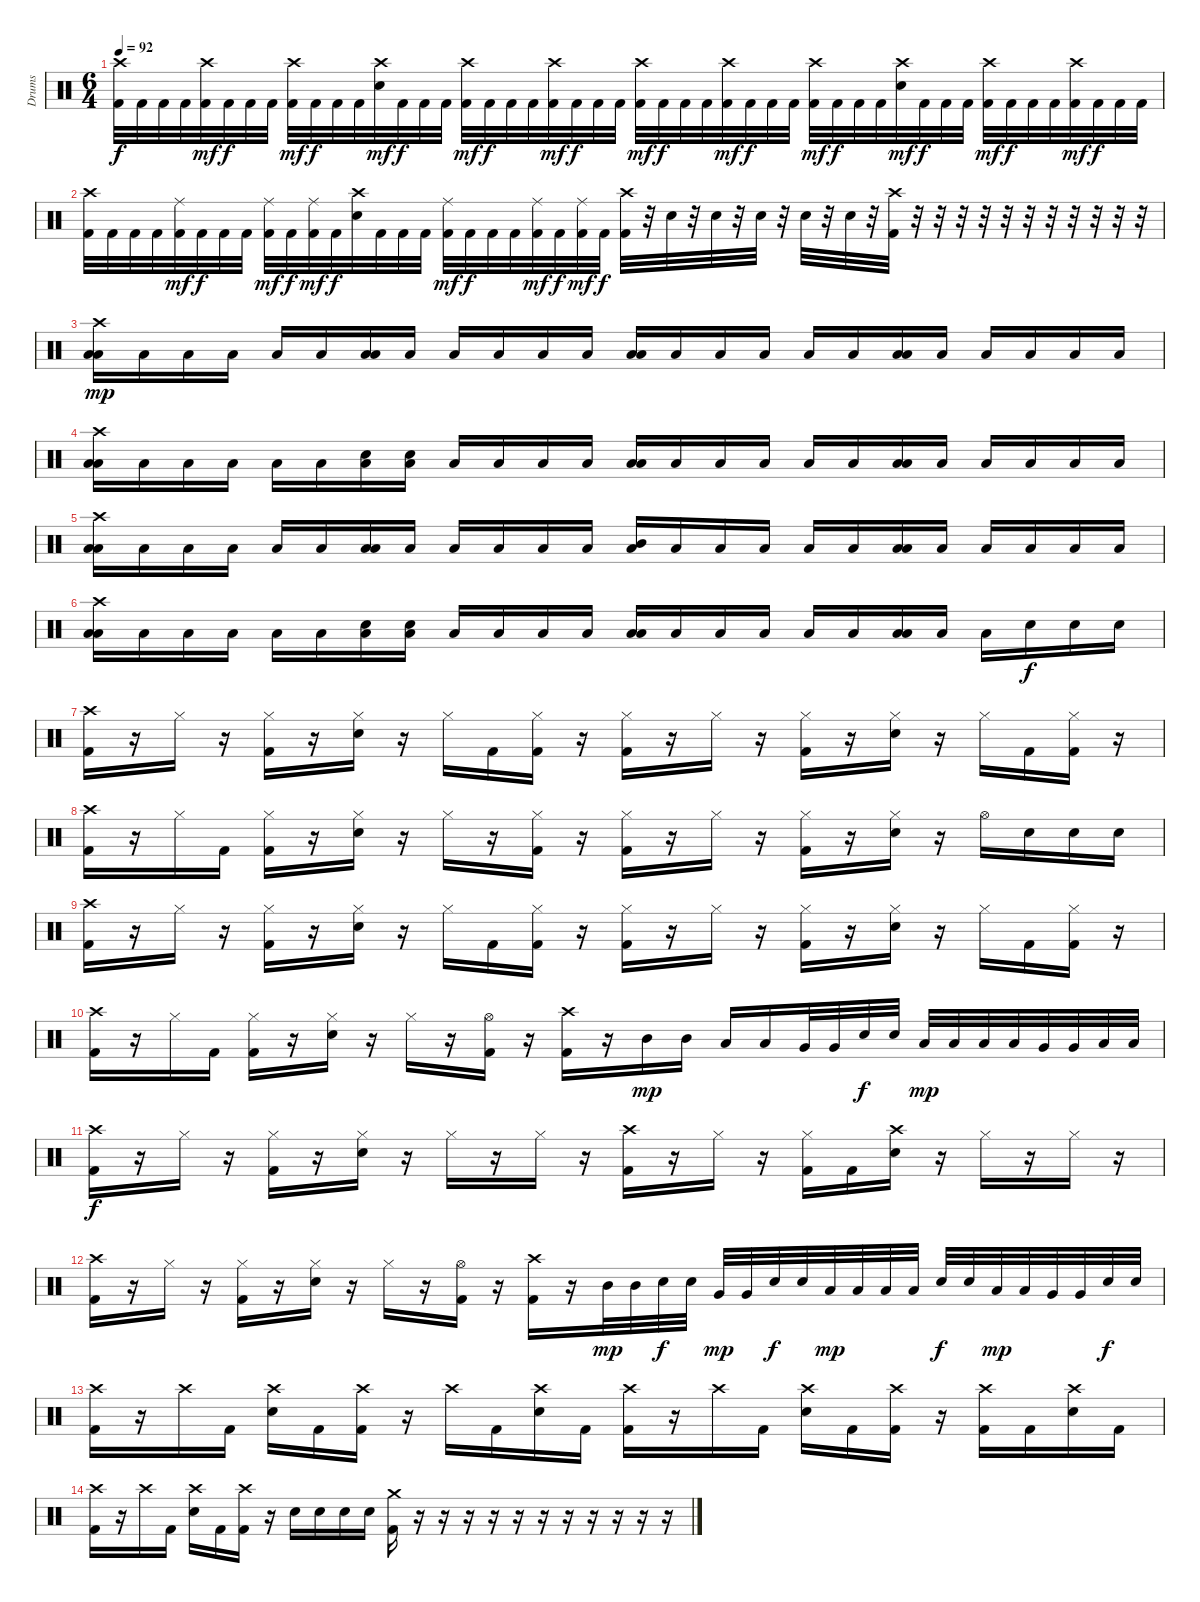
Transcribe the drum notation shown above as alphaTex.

\track ("Drums" "Drums") {instrument percussion}
\staff {score}
\articulation defaults
\ts (6 4)
\tempo 92
\clef neutral
\ks c
("Crash high (hit)" "Kick (hit) 2").32{dy f} "Kick (hit) 2".32 "Kick (hit) 2".32 "Kick (hit) 2".32 ("Crash high (hit)" "Kick (hit) 2").32{dy mf} "Kick (hit) 2".32{dy f} "Kick (hit) 2".32 "Kick (hit) 2".32 ("Crash high (hit)" "Kick (hit) 2").32{dy mf} "Kick (hit) 2".32{dy f} "Kick (hit) 2".32 "Kick (hit) 2".32 ("Crash high (hit)" "Electric Snare (hit)").32{dy mf} "Kick (hit) 2".32{dy f} "Kick (hit) 2".32 "Kick (hit) 2".32 ("Crash high (hit)" "Kick (hit) 2").32{dy mf} "Kick (hit) 2".32{dy f} "Kick (hit) 2".32 "Kick (hit) 2".32 ("Crash high (hit)" "Kick (hit) 2").32{dy mf} "Kick (hit) 2".32{dy f} "Kick (hit) 2".32 "Kick (hit) 2".32 ("Crash high (hit)" "Kick (hit) 2").32{dy mf} "Kick (hit) 2".32{dy f} "Kick (hit) 2".32 "Kick (hit) 2".32 ("Crash high (hit)" "Kick (hit) 2").32{dy mf} "Kick (hit) 2".32{dy f} "Kick (hit) 2".32 "Kick (hit) 2".32 ("Crash high (hit)" "Kick (hit) 2").32{dy mf} "Kick (hit) 2".32{dy f} "Kick (hit) 2".32 "Kick (hit) 2".32 ("Crash high (hit)" "Electric Snare (hit)").32{dy mf} "Kick (hit) 2".32{dy f} "Kick (hit) 2".32 "Kick (hit) 2".32 ("Crash high (hit)" "Kick (hit) 2").32{dy mf} "Kick (hit) 2".32{dy f} "Kick (hit) 2".32 "Kick (hit) 2".32 ("Crash high (hit)" "Kick (hit) 2").32{dy mf} "Kick (hit) 2".32{dy f} "Kick (hit) 2".32 "Kick (hit) 2".32 |
("Crash high (hit)" "Kick (hit) 2").32 "Kick (hit) 2".32 "Kick (hit) 2".32 "Kick (hit) 2".32 ("Ride (middle)" "Kick (hit) 2").32{dy mf} "Kick (hit) 2".32{dy f} "Kick (hit) 2".32 "Kick (hit) 2".32 ("Ride (middle)" "Kick (hit) 2").32{dy mf} "Kick (hit) 2".32{dy f} ("Ride (middle)" "Kick (hit) 2").32{dy mf} "Kick (hit) 2".32{dy f} ("Crash high (hit)" "Electric Snare (hit)").32 "Kick (hit) 2".32 "Kick (hit) 2".32 "Kick (hit) 2".32 ("Ride (middle)" "Kick (hit) 2").32{dy mf} "Kick (hit) 2".32{dy f} "Kick (hit) 2".32 "Kick (hit) 2".32 ("Ride (middle)" "Kick (hit) 2").32{dy mf} "Kick (hit) 2".32{dy f} ("Ride (middle)" "Kick (hit) 2").32{dy mf} "Kick (hit) 2".32{dy f} ("Crash high (hit)" "Kick (hit) 2").32 r.32 "Electric Snare (hit)".32 r.32 "Electric Snare (hit)".32 r.32 "Electric Snare (hit)".32 r.32 "Electric Snare (hit)".32 r.32 "Electric Snare (hit)".32 r.32 ("Crash high (hit)" "Kick (hit) 2").32 r.32 r.32 r.32 r.32 r.32 r.32 r.32 r.32 r.32 r.32 r.32 |
("Crash high (hit)" "Low Tom (hit)" "Low Floor Tom (hit)").16{dy mp} "Low Floor Tom (hit)".16 "Low Floor Tom (hit)".16 "Low Floor Tom (hit)".16 "Low Floor Tom (hit)".16 "Low Floor Tom (hit)".16 ("Low Tom (hit)" "Low Floor Tom (hit)").16 "Low Floor Tom (hit)".16 "Low Floor Tom (hit)".16 "Low Floor Tom (hit)".16 "Low Floor Tom (hit)".16 "Low Floor Tom (hit)".16 ("Low Tom (hit)" "Low Floor Tom (hit)").16 "Low Floor Tom (hit)".16 "Low Floor Tom (hit)".16 "Low Floor Tom (hit)".16 "Low Floor Tom (hit)".16 "Low Floor Tom (hit)".16 ("Low Tom (hit)" "Low Floor Tom (hit)").16 "Low Floor Tom (hit)".16 "Low Floor Tom (hit)".16 "Low Floor Tom (hit)".16 "Low Floor Tom (hit)".16 "Low Floor Tom (hit)".16 |
("Crash high (hit)" "Low Tom (hit)" "Low Floor Tom (hit)").16 "Low Floor Tom (hit)".16 "Low Floor Tom (hit)".16 "Low Floor Tom (hit)".16 "Low Floor Tom (hit)".16 "Low Floor Tom (hit)".16 ("Electric Snare (hit)" "Low Floor Tom (hit)").16 ("Electric Snare (hit)" "Low Floor Tom (hit)").16 "Low Floor Tom (hit)".16 "Low Floor Tom (hit)".16 "Low Floor Tom (hit)".16 "Low Floor Tom (hit)".16 ("Low Tom (hit)" "Low Floor Tom (hit)").16 "Low Floor Tom (hit)".16 "Low Floor Tom (hit)".16 "Low Floor Tom (hit)".16 "Low Floor Tom (hit)".16 "Low Floor Tom (hit)".16 ("Low Tom (hit)" "Low Floor Tom (hit)").16 "Low Floor Tom (hit)".16 "Low Floor Tom (hit)".16 "Low Floor Tom (hit)".16 "Low Floor Tom (hit)".16 "Low Floor Tom (hit)".16 |
("Crash high (hit)" "Low Tom (hit)" "Low Floor Tom (hit)").16 "Low Floor Tom (hit)".16 "Low Floor Tom (hit)".16 "Low Floor Tom (hit)".16 "Low Floor Tom (hit)".16 "Low Floor Tom (hit)".16 ("Low Tom (hit)" "Low Floor Tom (hit)").16 "Low Floor Tom (hit)".16 "Low Floor Tom (hit)".16 "Low Floor Tom (hit)".16 "Low Floor Tom (hit)".16 "Low Floor Tom (hit)".16 ("Mid Tom (hit)" "Low Floor Tom (hit)").16 "Low Floor Tom (hit)".16 "Low Floor Tom (hit)".16 "Low Floor Tom (hit)".16 "Low Floor Tom (hit)".16 "Low Floor Tom (hit)".16 ("Low Tom (hit)" "Low Floor Tom (hit)").16 "Low Floor Tom (hit)".16 "Low Floor Tom (hit)".16 "Low Floor Tom (hit)".16 "Low Floor Tom (hit)".16 "Low Floor Tom (hit)".16 |
("Crash high (hit)" "Low Tom (hit)" "Low Floor Tom (hit)").16 "Low Floor Tom (hit)".16 "Low Floor Tom (hit)".16 "Low Floor Tom (hit)".16 "Low Floor Tom (hit)".16 "Low Floor Tom (hit)".16 ("Electric Snare (hit)" "Low Floor Tom (hit)").16 ("Electric Snare (hit)" "Low Floor Tom (hit)").16 "Low Floor Tom (hit)".16 "Low Floor Tom (hit)".16 "Low Floor Tom (hit)".16 "Low Floor Tom (hit)".16 ("Low Tom (hit)" "Low Floor Tom (hit)").16 "Low Floor Tom (hit)".16 "Low Floor Tom (hit)".16 "Low Floor Tom (hit)".16 "Low Floor Tom (hit)".16 "Low Floor Tom (hit)".16 ("Low Tom (hit)" "Low Floor Tom (hit)").16 "Low Floor Tom (hit)".16 "Low Floor Tom (hit)".16 "Electric Snare (hit)".16{dy f} "Electric Snare (hit)".16 "Electric Snare (hit)".16 |
("Crash high (hit)" "Kick (hit) 2").16 r.16 "Hi-Hat (closed)".16 r.16 ("Hi-Hat (closed)" "Kick (hit) 2").16 r.16 ("Hi-Hat (closed)" "Electric Snare (hit)").16 r.16 "Hi-Hat (closed)".16 "Kick (hit) 2".16 ("Hi-Hat (closed)" "Kick (hit) 2").16 r.16 ("Hi-Hat (closed)" "Kick (hit) 2").16 r.16 "Hi-Hat (closed)".16 r.16 ("Hi-Hat (closed)" "Kick (hit) 2").16 r.16 ("Hi-Hat (closed)" "Electric Snare (hit)").16 r.16 "Hi-Hat (closed)".16 "Kick (hit) 2".16 ("Hi-Hat (closed)" "Kick (hit) 2").16 r.16 |
("Crash high (hit)" "Kick (hit) 2").16 r.16 "Hi-Hat (closed)".16 "Kick (hit) 2".16 ("Hi-Hat (closed)" "Kick (hit) 2").16 r.16 ("Hi-Hat (closed)" "Electric Snare (hit)").16 r.16 "Hi-Hat (closed)".16 r.16 ("Hi-Hat (closed)" "Kick (hit) 2").16 r.16 ("Hi-Hat (closed)" "Kick (hit) 2").16 r.16 "Hi-Hat (closed)".16 r.16 ("Hi-Hat (closed)" "Kick (hit) 2").16 r.16 ("Hi-Hat (closed)" "Electric Snare (hit)").16 r.16 "Hi-Hat (open)".16 "Electric Snare (hit)".16 "Electric Snare (hit)".16 "Electric Snare (hit)".16 |
("Crash high (hit)" "Kick (hit) 2").16 r.16 "Hi-Hat (closed)".16 r.16 ("Hi-Hat (closed)" "Kick (hit) 2").16 r.16 ("Hi-Hat (closed)" "Electric Snare (hit)").16 r.16 "Hi-Hat (closed)".16 "Kick (hit) 2".16 ("Hi-Hat (closed)" "Kick (hit) 2").16 r.16 ("Hi-Hat (closed)" "Kick (hit) 2").16 r.16 "Hi-Hat (closed)".16 r.16 ("Hi-Hat (closed)" "Kick (hit) 2").16 r.16 ("Hi-Hat (closed)" "Electric Snare (hit)").16 r.16 "Hi-Hat (closed)".16 "Kick (hit) 2".16 ("Hi-Hat (closed)" "Kick (hit) 2").16 r.16 |
("Crash high (hit)" "Kick (hit) 2").16 r.16 "Hi-Hat (closed)".16 "Kick (hit) 2".16 ("Hi-Hat (closed)" "Kick (hit) 2").16 r.16 ("Hi-Hat (closed)" "Electric Snare (hit)").16 r.16 "Hi-Hat (closed)".16 r.16 ("Hi-Hat (open)" "Kick (hit) 2").16 r.16 ("Crash high (hit)" "Kick (hit) 2").16 r.16 "Mid Tom (hit)".16{dy mp} "Mid Tom (hit)".16 "Low Tom (hit)".16 "Low Tom (hit)".16 "Very Low Tom (hit)".32 "Very Low Tom (hit)".32 "Electric Snare (hit)".32{dy f} "Electric Snare (hit)".32 "Low Floor Tom (hit)".32{dy mp} "Low Floor Tom (hit)".32 "Low Tom (hit)".32 "Low Tom (hit)".32 "Very Low Tom (hit)".32 "Very Low Tom (hit)".32 "Low Floor Tom (hit)".32 "Low Floor Tom (hit)".32 |
("Crash high (hit)" "Kick (hit) 2").16{dy f} r.16 "Hi-Hat (closed)".16 r.16 ("Hi-Hat (closed)" "Kick (hit) 2").16 r.16 ("Hi-Hat (closed)" "Electric Snare (hit)").16 r.16 "Hi-Hat (closed)".16 r.16 "Hi-Hat (closed)".16 r.16 ("Crash high (hit)" "Kick (hit) 2").16 r.16 "Hi-Hat (closed)".16 r.16 ("Hi-Hat (closed)" "Kick (hit) 2").16 "Kick (hit) 2".16 ("Crash high (hit)" "Electric Snare (hit)").16 r.16 "Hi-Hat (closed)".16 r.16 "Hi-Hat (closed)".16 r.16 |
("Crash high (hit)" "Kick (hit) 2").16 r.16 "Hi-Hat (closed)".16 r.16 ("Hi-Hat (closed)" "Kick (hit) 2").16 r.16 ("Hi-Hat (closed)" "Electric Snare (hit)").16 r.16 "Hi-Hat (closed)".16 r.16 ("Hi-Hat (open)" "Kick (hit) 2").16 r.16 ("Crash high (hit)" "Kick (hit) 2").16 r.16 "Mid Tom (hit)".32{dy mp} "Mid Tom (hit)".32 "Electric Snare (hit)".32{dy f} "Electric Snare (hit)".32 "Very Low Tom (hit)".32{dy mp} "Very Low Tom (hit)".32 "Electric Snare (hit)".32{dy f} "Electric Snare (hit)".32 "Low Floor Tom (hit)".32{dy mp} "Low Floor Tom (hit)".32 "Low Tom (hit)".32 "Low Tom (hit)".32 "Electric Snare (hit)".32{dy f} "Electric Snare (hit)".32 "Low Floor Tom (hit)".32{dy mp} "Low Floor Tom (hit)".32 "Very Low Tom (hit)".32 "Very Low Tom (hit)".32 "Electric Snare (hit)".32{dy f} "Electric Snare (hit)".32 |
("Crash high (hit)" "Kick (hit) 2").16 r.16 "Crash high (hit)".16 "Kick (hit) 2".16 ("Crash high (hit)" "Electric Snare (hit)").16 "Kick (hit) 2".16 ("Crash high (hit)" "Kick (hit) 2").16 r.16 "Crash high (hit)".16 "Kick (hit) 2".16 ("Crash high (hit)" "Electric Snare (hit)").16 "Kick (hit) 2".16 ("Crash high (hit)" "Kick (hit) 2").16 r.16 "Crash high (hit)".16 "Kick (hit) 2".16 ("Crash high (hit)" "Electric Snare (hit)").16 "Kick (hit) 2".16 ("Crash high (hit)" "Kick (hit) 2").16 r.16 ("Crash high (hit)" "Kick (hit) 2").16 "Kick (hit) 2".16 ("Crash high (hit)" "Electric Snare (hit)").16 "Kick (hit) 2".16 |
("Crash high (hit)" "Kick (hit) 2").16 r.16 "Crash high (hit)".16 "Kick (hit) 2".16 ("Crash high (hit)" "Electric Snare (hit)").16 "Kick (hit) 2".16 ("Crash high (hit)" "Kick (hit) 2").16 r.16 "Electric Snare (hit)".16 "Electric Snare (hit)".16 "Electric Snare (hit)".16 "Electric Snare (hit)".16 ("Crash medium (hit)" "Kick (hit) 2").16 r.16 r.16 r.16 r.16 r.16 r.16 r.16 r.16 r.16 r.16 r.16
